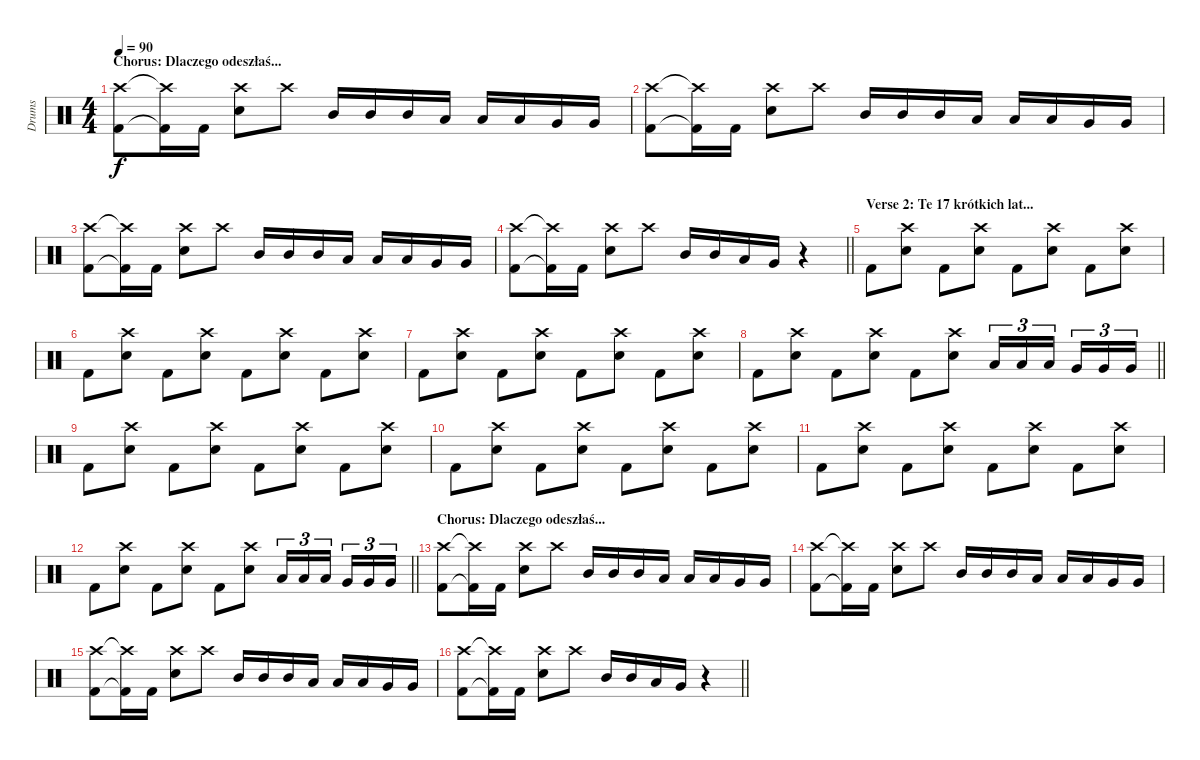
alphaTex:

\track ("Drums" "Drums") {instrument percussion}
\staff {score}
\articulation defaults
\ts (4 4)
\section ("" "Chorus: Dlaczego odeszłaś...")
\tempo 90
\clef neutral
\ks c
("Crash high (hit)" "Kick (hit) 2").8{dy f} ("Crash high (hit)"{t} "Kick (hit) 2"{t}).16 "Kick (hit) 2".16 ("Crash high (hit)" "Snare (hit) 2").8 "Crash high (hit)".8 "Mid Tom (hit)".16 "Mid Tom (hit)".16 "Mid Tom (hit)".16 "Low Tom (hit)".16 "Low Tom (hit)".16 "Low Tom (hit)".16 "Very Low Tom (hit)".16 "Very Low Tom (hit)".16 |
("Crash high (hit)" "Kick (hit) 2").8 ("Crash high (hit)"{t} "Kick (hit) 2"{t}).16 "Kick (hit) 2".16 ("Crash high (hit)" "Snare (hit) 2").8 "Crash high (hit)".8 "Mid Tom (hit)".16 "Mid Tom (hit)".16 "Mid Tom (hit)".16 "Low Tom (hit)".16 "Low Tom (hit)".16 "Low Tom (hit)".16 "Very Low Tom (hit)".16 "Very Low Tom (hit)".16 |
("Crash high (hit)" "Kick (hit) 2").8 ("Crash high (hit)"{t} "Kick (hit) 2"{t}).16 "Kick (hit) 2".16 ("Crash high (hit)" "Snare (hit) 2").8 "Crash high (hit)".8 "Mid Tom (hit)".16 "Mid Tom (hit)".16 "Mid Tom (hit)".16 "Low Tom (hit)".16 "Low Tom (hit)".16 "Low Tom (hit)".16 "Very Low Tom (hit)".16 "Very Low Tom (hit)".16 |
\barLineRight lightlight
("Crash high (hit)" "Kick (hit) 2").8 ("Crash high (hit)"{t} "Kick (hit) 2"{t}).16 "Kick (hit) 2".16 ("Crash high (hit)" "Snare (hit) 2").8 "Crash high (hit)".8 "Mid Tom (hit)".16 "Mid Tom (hit)".16 "Low Tom (hit)".16 "Very Low Tom (hit)".16 r.4 |
\section ("" "Verse 2: Te 17 krótkich lat...")
"Kick (hit) 2".8 ("Crash high (hit)" "Snare (hit) 2").8 "Kick (hit) 2".8 ("Crash high (hit)" "Snare (hit) 2").8 "Kick (hit) 2".8 ("Crash high (hit)" "Snare (hit) 2").8 "Kick (hit) 2".8 ("Crash high (hit)" "Snare (hit) 2").8 |
"Kick (hit) 2".8 ("Crash high (hit)" "Snare (hit) 2").8 "Kick (hit) 2".8 ("Crash high (hit)" "Snare (hit) 2").8 "Kick (hit) 2".8 ("Crash high (hit)" "Snare (hit) 2").8 "Kick (hit) 2".8 ("Crash high (hit)" "Snare (hit) 2").8 |
"Kick (hit) 2".8 ("Crash high (hit)" "Snare (hit) 2").8 "Kick (hit) 2".8 ("Crash high (hit)" "Snare (hit) 2").8 "Kick (hit) 2".8 ("Crash high (hit)" "Snare (hit) 2").8 "Kick (hit) 2".8 ("Crash high (hit)" "Snare (hit) 2").8 |
\barLineRight lightlight "Kick (hit) 2".8
("Crash high (hit)" "Snare (hit) 2").8 "Kick (hit) 2".8 ("Crash high (hit)" "Snare (hit) 2").8 "Kick (hit) 2".8 ("Crash high (hit)" "Snare (hit) 2").8 "Low Tom (hit)".16{tu (3 2)} "Low Tom (hit)".16{tu (3 2)} "Low Tom (hit)".16{tu (3 2) beam splitsecondary} "Very Low Tom (hit)".16{tu (3 2)} "Very Low Tom (hit)".16{tu (3 2)} "Very Low Tom (hit)".16{tu (3 2)} |
"Kick (hit) 2".8 ("Crash high (hit)" "Snare (hit) 2").8 "Kick (hit) 2".8 ("Crash high (hit)" "Snare (hit) 2").8 "Kick (hit) 2".8 ("Crash high (hit)" "Snare (hit) 2").8 "Kick (hit) 2".8 ("Crash high (hit)" "Snare (hit) 2").8 |
"Kick (hit) 2".8 ("Crash high (hit)" "Snare (hit) 2").8 "Kick (hit) 2".8 ("Crash high (hit)" "Snare (hit) 2").8 "Kick (hit) 2".8 ("Crash high (hit)" "Snare (hit) 2").8 "Kick (hit) 2".8 ("Crash high (hit)" "Snare (hit) 2").8 |
"Kick (hit) 2".8 ("Crash high (hit)" "Snare (hit) 2").8 "Kick (hit) 2".8 ("Crash high (hit)" "Snare (hit) 2").8 "Kick (hit) 2".8 ("Crash high (hit)" "Snare (hit) 2").8 "Kick (hit) 2".8 ("Crash high (hit)" "Snare (hit) 2").8 |
\barLineRight lightlight "Kick (hit) 2".8
("Crash high (hit)" "Snare (hit) 2").8 "Kick (hit) 2".8 ("Crash high (hit)" "Snare (hit) 2").8 "Kick (hit) 2".8 ("Crash high (hit)" "Snare (hit) 2").8 "Low Tom (hit)".16{tu (3 2)} "Low Tom (hit)".16{tu (3 2)} "Low Tom (hit)".16{tu (3 2) beam splitsecondary} "Very Low Tom (hit)".16{tu (3 2)} "Very Low Tom (hit)".16{tu (3 2)} "Very Low Tom (hit)".16{tu (3 2)} |
\section ("" "Chorus: Dlaczego odeszłaś...")
("Crash high (hit)" "Kick (hit) 2").8 ("Crash high (hit)"{t} "Kick (hit) 2"{t}).16 "Kick (hit) 2".16 ("Crash high (hit)" "Snare (hit) 2").8 "Crash high (hit)".8 "Mid Tom (hit)".16 "Mid Tom (hit)".16 "Mid Tom (hit)".16 "Low Tom (hit)".16 "Low Tom (hit)".16 "Low Tom (hit)".16 "Very Low Tom (hit)".16 "Very Low Tom (hit)".16 |
("Crash high (hit)" "Kick (hit) 2").8 ("Crash high (hit)"{t} "Kick (hit) 2"{t}).16 "Kick (hit) 2".16 ("Crash high (hit)" "Snare (hit) 2").8 "Crash high (hit)".8 "Mid Tom (hit)".16 "Mid Tom (hit)".16 "Mid Tom (hit)".16 "Low Tom (hit)".16 "Low Tom (hit)".16 "Low Tom (hit)".16 "Very Low Tom (hit)".16 "Very Low Tom (hit)".16 |
("Crash high (hit)" "Kick (hit) 2").8 ("Crash high (hit)"{t} "Kick (hit) 2"{t}).16 "Kick (hit) 2".16 ("Crash high (hit)" "Snare (hit) 2").8 "Crash high (hit)".8 "Mid Tom (hit)".16 "Mid Tom (hit)".16 "Mid Tom (hit)".16 "Low Tom (hit)".16 "Low Tom (hit)".16 "Low Tom (hit)".16 "Very Low Tom (hit)".16 "Very Low Tom (hit)".16 |
\barLineRight lightlight
("Crash high (hit)" "Kick (hit) 2").8 ("Crash high (hit)"{t} "Kick (hit) 2"{t}).16 "Kick (hit) 2".16 ("Crash high (hit)" "Snare (hit) 2").8 "Crash high (hit)".8 "Mid Tom (hit)".16 "Mid Tom (hit)".16 "Low Tom (hit)".16 "Very Low Tom (hit)".16 r.4
